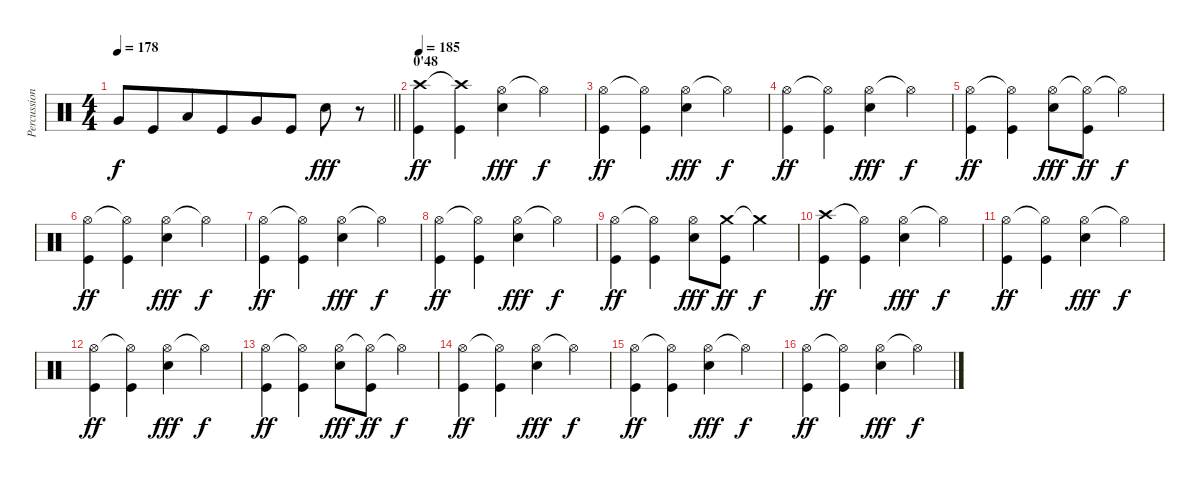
\track ("Percussion" "Percussion") {instrument percussion}
\staff {score}
\articulation defaults
\ts (4 4)
\tempo 178
\clef neutral
\barLineRight lightlight
\ks c "Very Low Tom (hit)".8{dy f} "Kick (hit)".8{beam merge} "Low Floor Tom (hit)".8 "Kick (hit)".8{beam merge} "Very Low Tom (hit)".8 "Kick (hit)".8 "Electric Snare (hit)".8{dy fff}
r.8 |
\section ("" "0'48")
\tempo 185
("Crash high (hit)" "Kick (hit)").4{dy ff} ("Crash high (hit)"{t} "Kick (hit)").4 ("Hi-Hat (open)" "Electric Snare (hit)").4{dy fff} "Hi-Hat (open)"{t}.4{dy f} |
("Hi-Hat (open)" "Kick (hit)").4{dy ff} ("Hi-Hat (open)"{t} "Kick (hit)").4 ("Hi-Hat (open)" "Electric Snare (hit)").4{dy fff} "Hi-Hat (open)"{t}.4{dy f} |
("Hi-Hat (open)" "Kick (hit)").4{dy ff} ("Hi-Hat (open)"{t} "Kick (hit)").4 ("Hi-Hat (open)" "Electric Snare (hit)").4{dy fff} "Hi-Hat (open)"{t}.4{dy f} |
("Hi-Hat (open)" "Kick (hit)").4{dy ff} ("Hi-Hat (open)"{t} "Kick (hit)").4 ("Hi-Hat (open)" "Electric Snare (hit)").8{dy fff} ("Hi-Hat (open)"{t} "Kick (hit)").8{dy ff} "Hi-Hat (open)"{t}.4{dy f} |
("Hi-Hat (open)" "Kick (hit)").4{dy ff} ("Hi-Hat (open)"{t} "Kick (hit)").4 ("Hi-Hat (open)" "Electric Snare (hit)").4{dy fff} "Hi-Hat (open)"{t}.4{dy f} |
("Hi-Hat (open)" "Kick (hit)").4{dy ff} ("Hi-Hat (open)"{t} "Kick (hit)").4 ("Hi-Hat (open)" "Electric Snare (hit)").4{dy fff} "Hi-Hat (open)"{t}.4{dy f} |
("Hi-Hat (open)" "Kick (hit)").4{dy ff} ("Hi-Hat (open)"{t} "Kick (hit)").4 ("Hi-Hat (open)" "Electric Snare (hit)").4{dy fff} "Hi-Hat (open)"{t}.4{dy f} |
("Hi-Hat (open)" "Kick (hit)").4{dy ff} ("Hi-Hat (open)"{t} "Kick (hit)").4 ("Hi-Hat (open)" "Electric Snare (hit)").8{dy fff} ("Crash medium (hit)" "Kick (hit)").8{dy ff} "Crash medium (hit)"{t}.4{dy f} |
("Crash high (hit)" "Kick (hit)").4{dy ff} ("Hi-Hat (open)"{t} "Kick (hit)").4 ("Hi-Hat (open)" "Electric Snare (hit)").4{dy fff} "Hi-Hat (open)"{t}.4{dy f} |
("Hi-Hat (open)" "Kick (hit)").4{dy ff} ("Hi-Hat (open)"{t} "Kick (hit)").4 ("Hi-Hat (open)" "Electric Snare (hit)").4{dy fff} "Hi-Hat (open)"{t}.4{dy f} |
("Hi-Hat (open)" "Kick (hit)").4{dy ff} ("Hi-Hat (open)"{t} "Kick (hit)").4 ("Hi-Hat (open)" "Electric Snare (hit)").4{dy fff} "Hi-Hat (open)"{t}.4{dy f} |
("Hi-Hat (open)" "Kick (hit)").4{dy ff} ("Hi-Hat (open)"{t} "Kick (hit)").4 ("Hi-Hat (open)" "Electric Snare (hit)").8{dy fff} ("Hi-Hat (open)"{t} "Kick (hit)").8{dy ff} "Hi-Hat (open)"{t}.4{dy f} |
("Hi-Hat (open)" "Kick (hit)").4{dy ff} ("Hi-Hat (open)"{t} "Kick (hit)").4 ("Hi-Hat (open)" "Electric Snare (hit)").4{dy fff} "Hi-Hat (open)"{t}.4{dy f} |
("Hi-Hat (open)" "Kick (hit)").4{dy ff} ("Hi-Hat (open)"{t} "Kick (hit)").4 ("Hi-Hat (open)" "Electric Snare (hit)").4{dy fff} "Hi-Hat (open)"{t}.4{dy f} |
("Hi-Hat (open)" "Kick (hit)").4{dy ff} ("Hi-Hat (open)"{t} "Kick (hit)").4 ("Hi-Hat (open)" "Electric Snare (hit)").4{dy fff} "Hi-Hat (open)"{t}.4{dy f}
